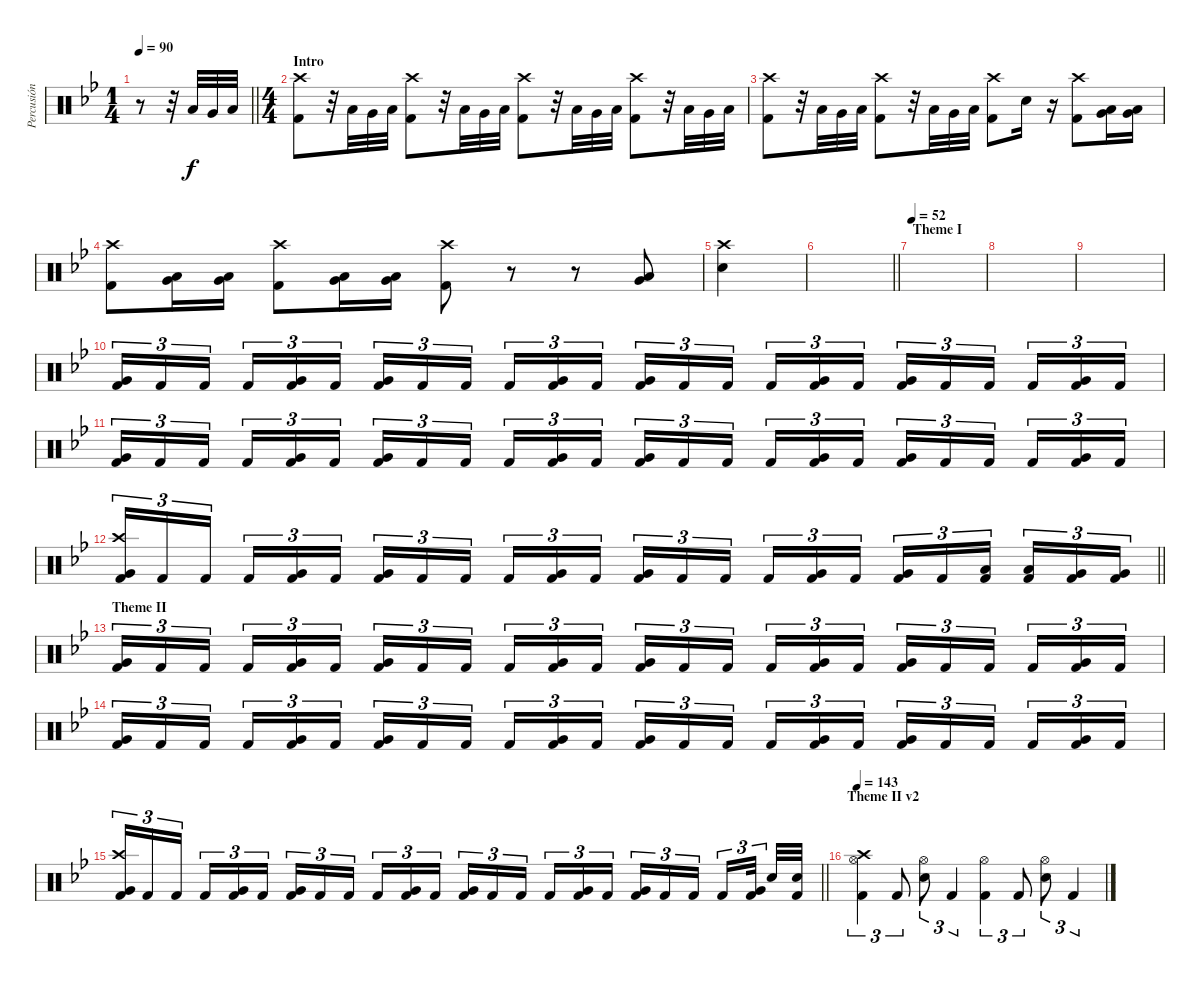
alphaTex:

\track ("Percusión" "Percusión") {instrument percussion}
\staff {score}
\articulation defaults
\ts (1 4)
\tempo 90
\clef neutral
\barLineRight lightlight
\ks bb
r.8{dy f} r.32 "Low Tom (hit)".32 "Very Low Tom (hit)".32 "Low Tom (hit)".32 |
\ts (4 4)
\section ("" "Intro")
("Crash high (hit)" "Kick (hit) 2").8 r.32 "Low Tom (hit)".32 "Very Low Tom (hit)".32 "Low Tom (hit)".32 ("Crash high (hit)" "Kick (hit) 2").8 r.32 "Low Tom (hit)".32 "Very Low Tom (hit)".32 "Low Tom (hit)".32 ("Crash high (hit)" "Kick (hit) 2").8 r.32 "Low Tom (hit)".32 "Very Low Tom (hit)".32 "Low Tom (hit)".32 ("Crash high (hit)" "Kick (hit) 2").8 r.32 "Low Tom (hit)".32 "Very Low Tom (hit)".32 "Low Tom (hit)".32 |
("Crash high (hit)" "Kick (hit) 2").8 r.32 "Low Tom (hit)".32 "Very Low Tom (hit)".32 "Low Tom (hit)".32 ("Crash high (hit)" "Kick (hit) 2").8 r.32 "Low Tom (hit)".32 "Very Low Tom (hit)".32 "Low Tom (hit)".32 ("Crash high (hit)" "Kick (hit) 2").8 "Snare (hit) 2".16 r.16 ("Crash high (hit)" "Kick (hit) 2").8 ("Very Low Tom (hit)" "Low Tom (hit)").16 ("Very Low Tom (hit)" "Low Tom (hit)").16 |
("Crash high (hit)" "Kick (hit) 2").8 ("Very Low Tom (hit)" "Low Tom (hit)").16 ("Very Low Tom (hit)" "Low Tom (hit)").16 ("Crash high (hit)" "Kick (hit) 2").8 ("Very Low Tom (hit)" "Low Tom (hit)").16 ("Very Low Tom (hit)" "Low Tom (hit)").16 ("Crash high (hit)" "Kick (hit) 2").8 r.8 r.8 ("Low Tom (hit)" "Very Low Tom (hit)").8 |
("Crash high (hit)" "Snare (hit) 2").4 |
\barLineRight lightlight
|
\section ("" "Theme I")
\tempo 52
|
|
|
("Very Low Tom (hit)" "Kick (hit) 2").16{tu (3 2)} "Kick (hit) 2".16{tu (3 2)} "Kick (hit) 2".16{tu (3 2)} "Kick (hit) 2".16{tu (3 2)} ("Very Low Tom (hit)" "Kick (hit) 2").16{tu (3 2)} "Kick (hit) 2".16{tu (3 2)} ("Very Low Tom (hit)" "Kick (hit) 2").16{tu (3 2)} "Kick (hit) 2".16{tu (3 2)} "Kick (hit) 2".16{tu (3 2)} "Kick (hit) 2".16{tu (3 2)} ("Very Low Tom (hit)" "Kick (hit) 2").16{tu (3 2)} "Kick (hit) 2".16{tu (3 2)} ("Very Low Tom (hit)" "Kick (hit) 2").16{tu (3 2)} "Kick (hit) 2".16{tu (3 2)} "Kick (hit) 2".16{tu (3 2)} "Kick (hit) 2".16{tu (3 2)} ("Very Low Tom (hit)" "Kick (hit) 2").16{tu (3 2)} "Kick (hit) 2".16{tu (3 2)} ("Very Low Tom (hit)" "Kick (hit) 2").16{tu (3 2)} "Kick (hit) 2".16{tu (3 2)} "Kick (hit) 2".16{tu (3 2)} "Kick (hit) 2".16{tu (3 2)} ("Very Low Tom (hit)" "Kick (hit) 2").16{tu (3 2)} "Kick (hit) 2".16{tu (3 2)} |
("Very Low Tom (hit)" "Kick (hit) 2").16{tu (3 2)} "Kick (hit) 2".16{tu (3 2)} "Kick (hit) 2".16{tu (3 2)} "Kick (hit) 2".16{tu (3 2)} ("Very Low Tom (hit)" "Kick (hit) 2").16{tu (3 2)} "Kick (hit) 2".16{tu (3 2)} ("Very Low Tom (hit)" "Kick (hit) 2").16{tu (3 2)} "Kick (hit) 2".16{tu (3 2)} "Kick (hit) 2".16{tu (3 2)} "Kick (hit) 2".16{tu (3 2)} ("Very Low Tom (hit)" "Kick (hit) 2").16{tu (3 2)} "Kick (hit) 2".16{tu (3 2)} ("Very Low Tom (hit)" "Kick (hit) 2").16{tu (3 2)} "Kick (hit) 2".16{tu (3 2)} "Kick (hit) 2".16{tu (3 2)} "Kick (hit) 2".16{tu (3 2)} ("Very Low Tom (hit)" "Kick (hit) 2").16{tu (3 2)} "Kick (hit) 2".16{tu (3 2)} ("Very Low Tom (hit)" "Kick (hit) 2").16{tu (3 2)} "Kick (hit) 2".16{tu (3 2)} "Kick (hit) 2".16{tu (3 2)} "Kick (hit) 2".16{tu (3 2)} ("Very Low Tom (hit)" "Kick (hit) 2").16{tu (3 2)} "Kick (hit) 2".16{tu (3 2)} |
\barLineRight lightlight
("Crash high (hit)" "Very Low Tom (hit)" "Kick (hit) 2").16{tu (3 2)} "Kick (hit) 2".16{tu (3 2)} "Kick (hit) 2".16{tu (3 2)} "Kick (hit) 2".16{tu (3 2)} ("Very Low Tom (hit)" "Kick (hit) 2").16{tu (3 2)} "Kick (hit) 2".16{tu (3 2)} ("Very Low Tom (hit)" "Kick (hit) 2").16{tu (3 2)} "Kick (hit) 2".16{tu (3 2)} "Kick (hit) 2".16{tu (3 2)} "Kick (hit) 2".16{tu (3 2)} ("Very Low Tom (hit)" "Kick (hit) 2").16{tu (3 2)} "Kick (hit) 2".16{tu (3 2)} ("Very Low Tom (hit)" "Kick (hit) 2").16{tu (3 2)} "Kick (hit) 2".16{tu (3 2)} "Kick (hit) 2".16{tu (3 2)} "Kick (hit) 2".16{tu (3 2)} ("Very Low Tom (hit)" "Kick (hit) 2").16{tu (3 2)} "Kick (hit) 2".16{tu (3 2)} ("Very Low Tom (hit)" "Kick (hit) 2").16{tu (3 2)} "Kick (hit) 2".16{tu (3 2)} ("Low Tom (hit)" "Kick (hit) 2").16{tu (3 2)} ("Low Tom (hit)" "Kick (hit) 2").16{tu (3 2)} ("Very Low Tom (hit)" "Kick (hit) 2").16{tu (3 2)} ("Very Low Tom (hit)" "Kick (hit) 2").16{tu (3 2)} |
\section ("" "Theme II")
("Very Low Tom (hit)" "Kick (hit) 2").16{tu (3 2)} "Kick (hit) 2".16{tu (3 2)} "Kick (hit) 2".16{tu (3 2)} "Kick (hit) 2".16{tu (3 2)} ("Very Low Tom (hit)" "Kick (hit) 2").16{tu (3 2)} "Kick (hit) 2".16{tu (3 2)} ("Very Low Tom (hit)" "Kick (hit) 2").16{tu (3 2)} "Kick (hit) 2".16{tu (3 2)} "Kick (hit) 2".16{tu (3 2)} "Kick (hit) 2".16{tu (3 2)} ("Very Low Tom (hit)" "Kick (hit) 2").16{tu (3 2)} "Kick (hit) 2".16{tu (3 2)} ("Very Low Tom (hit)" "Kick (hit) 2").16{tu (3 2)} "Kick (hit) 2".16{tu (3 2)} "Kick (hit) 2".16{tu (3 2)} "Kick (hit) 2".16{tu (3 2)} ("Very Low Tom (hit)" "Kick (hit) 2").16{tu (3 2)} "Kick (hit) 2".16{tu (3 2)} ("Very Low Tom (hit)" "Kick (hit) 2").16{tu (3 2)} "Kick (hit) 2".16{tu (3 2)} "Kick (hit) 2".16{tu (3 2)} "Kick (hit) 2".16{tu (3 2)} ("Very Low Tom (hit)" "Kick (hit) 2").16{tu (3 2)} "Kick (hit) 2".16{tu (3 2)} |
("Very Low Tom (hit)" "Kick (hit) 2").16{tu (3 2)} "Kick (hit) 2".16{tu (3 2)} "Kick (hit) 2".16{tu (3 2)} "Kick (hit) 2".16{tu (3 2)} ("Very Low Tom (hit)" "Kick (hit) 2").16{tu (3 2)} "Kick (hit) 2".16{tu (3 2)} ("Very Low Tom (hit)" "Kick (hit) 2").16{tu (3 2)} "Kick (hit) 2".16{tu (3 2)} "Kick (hit) 2".16{tu (3 2)} "Kick (hit) 2".16{tu (3 2)} ("Very Low Tom (hit)" "Kick (hit) 2").16{tu (3 2)} "Kick (hit) 2".16{tu (3 2)} ("Very Low Tom (hit)" "Kick (hit) 2").16{tu (3 2)} "Kick (hit) 2".16{tu (3 2)} "Kick (hit) 2".16{tu (3 2)} "Kick (hit) 2".16{tu (3 2)} ("Very Low Tom (hit)" "Kick (hit) 2").16{tu (3 2)} "Kick (hit) 2".16{tu (3 2)} ("Very Low Tom (hit)" "Kick (hit) 2").16{tu (3 2)} "Kick (hit) 2".16{tu (3 2)} "Kick (hit) 2".16{tu (3 2)} "Kick (hit) 2".16{tu (3 2)} ("Very Low Tom (hit)" "Kick (hit) 2").16{tu (3 2)} "Kick (hit) 2".16{tu (3 2)} |
\barLineRight lightlight
("Crash high (hit)" "Very Low Tom (hit)" "Kick (hit) 2").16{tu (3 2)} "Kick (hit) 2".16{tu (3 2)} "Kick (hit) 2".16{tu (3 2)} "Kick (hit) 2".16{tu (3 2)} ("Very Low Tom (hit)" "Kick (hit) 2").16{tu (3 2)} "Kick (hit) 2".16{tu (3 2)} ("Very Low Tom (hit)" "Kick (hit) 2").16{tu (3 2)} "Kick (hit) 2".16{tu (3 2)} "Kick (hit) 2".16{tu (3 2)} "Kick (hit) 2".16{tu (3 2)} ("Very Low Tom (hit)" "Kick (hit) 2").16{tu (3 2)} "Kick (hit) 2".16{tu (3 2)} ("Very Low Tom (hit)" "Kick (hit) 2").16{tu (3 2)} "Kick (hit) 2".16{tu (3 2)} "Kick (hit) 2".16{tu (3 2)} "Kick (hit) 2".16{tu (3 2)} ("Very Low Tom (hit)" "Kick (hit) 2").16{tu (3 2)} "Kick (hit) 2".16{tu (3 2)} ("Very Low Tom (hit)" "Kick (hit) 2").16{tu (3 2)} "Kick (hit) 2".16{tu (3 2)} "Kick (hit) 2".16{tu (3 2)} "Kick (hit) 2".16{tu (3 2)} ("Very Low Tom (hit)" "Kick (hit) 2").32{tu (3 2)} "Snare (hit) 2".32 ("Snare (hit) 2" "Kick (hit) 2").32 |
\section ("" "Theme II v2")
\tempo 143
("Crash high (hit)" "Hi-Hat (open)" "Kick (hit) 2").4{tu (3 2)} "Kick (hit) 2".8{tu (3 2)} ("Snare (hit) 2" "Hi-Hat (open)").8{tu (3 2)} "Kick (hit) 2".4{tu (3 2)} ("Hi-Hat (open)" "Kick (hit) 2").4{tu (3 2)} "Kick (hit) 2".8{tu (3 2)} ("Snare (hit) 2" "Hi-Hat (open)").8{tu (3 2)} "Kick (hit) 2".4{tu (3 2)}
